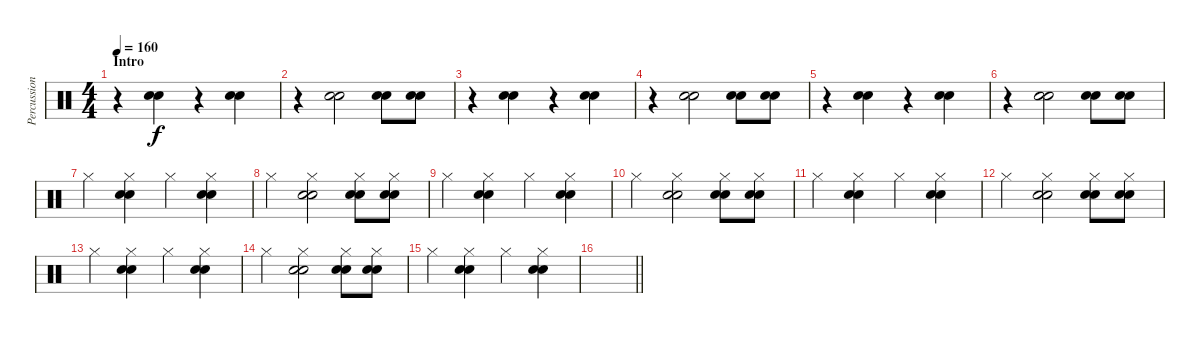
\track ("Percussion" "Percussion") {instrument percussion}
\staff {score}
\articulation defaults
\ts (4 4)
\section ("" "Intro")
\tempo 160
\clef neutral
\ks c
r.4{dy f} ("Electric Snare (hit)" "Electric Snare (hit)").4 r.4 ("Electric Snare (hit)" "Electric Snare (hit)").4 |
r.4 ("Electric Snare (hit)" "Electric Snare (hit)").2 ("Electric Snare (hit)" "Electric Snare (hit)").8 ("Electric Snare (hit)" "Electric Snare (hit)").8 |
r.4 ("Electric Snare (hit)" "Electric Snare (hit)").4 r.4 ("Electric Snare (hit)" "Electric Snare (hit)").4 |
r.4 ("Electric Snare (hit)" "Electric Snare (hit)").2 ("Electric Snare (hit)" "Electric Snare (hit)").8 ("Electric Snare (hit)" "Electric Snare (hit)").8 |
r.4 ("Electric Snare (hit)" "Electric Snare (hit)").4 r.4 ("Electric Snare (hit)" "Electric Snare (hit)").4 |
r.4 ("Electric Snare (hit)" "Electric Snare (hit)").2 ("Electric Snare (hit)" "Electric Snare (hit)").8 ("Electric Snare (hit)" "Electric Snare (hit)").8 |
"Hi-Hat (closed)".4 ("Hi-Hat (closed)" "Electric Snare (hit)" "Electric Snare (hit)").4 "Hi-Hat (closed)".4 ("Hi-Hat (closed)" "Electric Snare (hit)" "Electric Snare (hit)").4 |
"Hi-Hat (closed)".4 ("Hi-Hat (closed)" "Electric Snare (hit)" "Electric Snare (hit)").2 ("Hi-Hat (closed)" "Electric Snare (hit)" "Electric Snare (hit)").8 ("Hi-Hat (closed)" "Electric Snare (hit)" "Electric Snare (hit)").8 |
"Hi-Hat (closed)".4 ("Hi-Hat (closed)" "Electric Snare (hit)" "Electric Snare (hit)").4 "Hi-Hat (closed)".4 ("Hi-Hat (closed)" "Electric Snare (hit)" "Electric Snare (hit)").4 |
"Hi-Hat (closed)".4 ("Hi-Hat (closed)" "Electric Snare (hit)" "Electric Snare (hit)").2 ("Hi-Hat (closed)" "Electric Snare (hit)" "Electric Snare (hit)").8 ("Hi-Hat (closed)" "Electric Snare (hit)" "Electric Snare (hit)").8 |
"Hi-Hat (closed)".4 ("Hi-Hat (closed)" "Electric Snare (hit)" "Electric Snare (hit)").4 "Hi-Hat (closed)".4 ("Hi-Hat (closed)" "Electric Snare (hit)" "Electric Snare (hit)").4 |
"Hi-Hat (closed)".4 ("Hi-Hat (closed)" "Electric Snare (hit)" "Electric Snare (hit)").2 ("Hi-Hat (closed)" "Electric Snare (hit)" "Electric Snare (hit)").8 ("Hi-Hat (closed)" "Electric Snare (hit)" "Electric Snare (hit)").8 |
"Hi-Hat (closed)".4 ("Hi-Hat (closed)" "Electric Snare (hit)" "Electric Snare (hit)").4 "Hi-Hat (closed)".4 ("Hi-Hat (closed)" "Electric Snare (hit)" "Electric Snare (hit)").4 |
"Hi-Hat (closed)".4 ("Hi-Hat (closed)" "Electric Snare (hit)" "Electric Snare (hit)").2 ("Hi-Hat (closed)" "Electric Snare (hit)" "Electric Snare (hit)").8 ("Hi-Hat (closed)" "Electric Snare (hit)" "Electric Snare (hit)").8 |
"Hi-Hat (closed)".4 ("Hi-Hat (closed)" "Electric Snare (hit)" "Electric Snare (hit)").4 "Hi-Hat (closed)".4 ("Hi-Hat (closed)" "Electric Snare (hit)" "Electric Snare (hit)").4 |
\barLineRight lightlight
